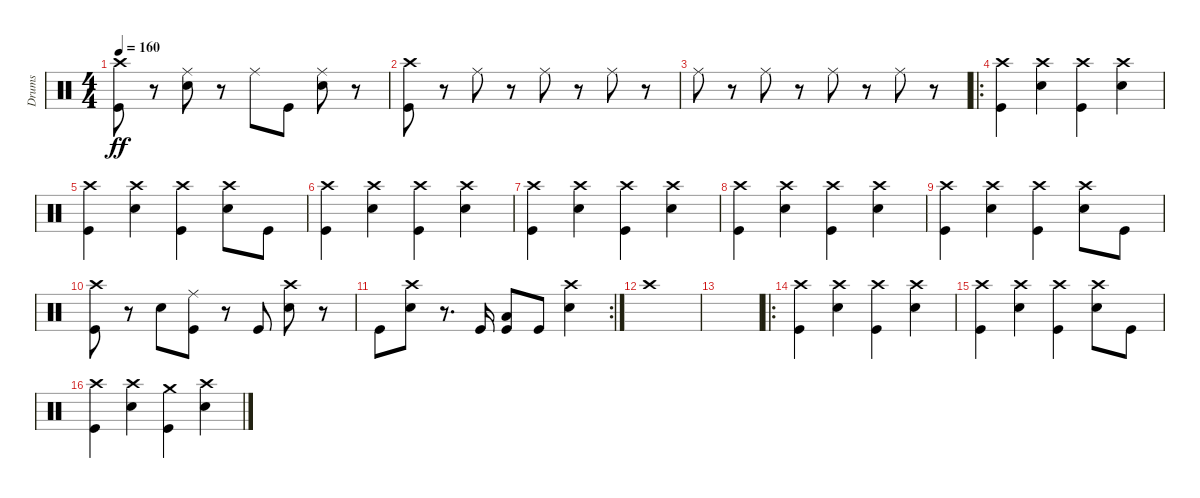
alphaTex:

\track ("Drums" "Drums") {instrument percussion}
\staff {score}
\articulation defaults
\ts (4 4)
\tempo 160
\clef neutral
\ks c
("Crash high (hit)" "Kick (hit)").8{dy ff} r.8 ("Ride (middle)" "Snare (hit) 2").8 r.8 "Ride (middle)".8 "Kick (hit)".8 ("Ride (middle)" "Snare (hit) 2").8 r.8 |
("Crash high (hit)" "Kick (hit)").8 r.8 "Ride (middle)".8 r.8 "Ride (middle)".8 r.8 "Ride (middle)".8 r.8 |
"Ride (middle)".8 r.8 "Ride (middle)".8 r.8 "Ride (middle)".8 r.8 "Ride (middle)".8 r.8 |
\ro
("Crash high (hit)" "Kick (hit)").4 ("Crash high (hit)" "Snare (hit) 2").4 ("Crash high (hit)" "Kick (hit)").4 ("Crash high (hit)" "Snare (hit) 2").4 |
("Crash high (hit)" "Kick (hit)").4 ("Crash high (hit)" "Snare (hit) 2").4 ("Crash high (hit)" "Kick (hit)").4 ("Crash high (hit)" "Snare (hit) 2").8 "Kick (hit)".8 |
("Crash high (hit)" "Kick (hit)").4 ("Crash high (hit)" "Snare (hit) 2").4 ("Crash high (hit)" "Kick (hit)").4 ("Crash high (hit)" "Snare (hit) 2").4 |
("Crash high (hit)" "Kick (hit)").4 ("Crash high (hit)" "Snare (hit) 2").4 ("Crash high (hit)" "Kick (hit)").4 ("Crash high (hit)" "Snare (hit) 2").4 |
("Crash high (hit)" "Kick (hit)").4 ("Crash high (hit)" "Snare (hit) 2").4 ("Crash high (hit)" "Kick (hit)").4 ("Crash high (hit)" "Snare (hit) 2").4 |
("Crash high (hit)" "Kick (hit)").4 ("Crash high (hit)" "Snare (hit) 2").4 ("Crash high (hit)" "Kick (hit)").4 ("Crash high (hit)" "Snare (hit) 2").8 "Kick (hit)".8 |
("Crash high (hit)" "Kick (hit)").8 r.8 "Snare (hit) 2".8 ("Ride (middle)" "Kick (hit)").8 r.8 "Kick (hit)".8 ("Crash high (hit)" "Snare (hit) 2").8 r.8 |
\rc 2 "Kick (hit)".8
("Crash high (hit)" "Snare (hit) 2").8 r.8{d} "Kick (hit)".16 ("Low Floor Tom (hit)" "Kick (hit)").8 "Kick (hit)".8 ("Crash high (hit)" "Snare (hit) 2").4 |
"Crash high (hit)".1 |
|
\ro
("Crash high (hit)" "Kick (hit)").4 ("Crash high (hit)" "Snare (hit) 2").4 ("Crash high (hit)" "Kick (hit)").4 ("Crash high (hit)" "Snare (hit) 2").4 |
("Crash high (hit)" "Kick (hit)").4 ("Crash high (hit)" "Snare (hit) 2").4 ("Crash high (hit)" "Kick (hit)").4 ("Crash high (hit)" "Snare (hit) 2").8 "Kick (hit)".8 |
("Crash high (hit)" "Kick (hit)").4 ("Crash high (hit)" "Snare (hit) 2").4 ("Crash medium (hit)" "Kick (hit)").4 ("Crash high (hit)" "Snare (hit) 2").4
